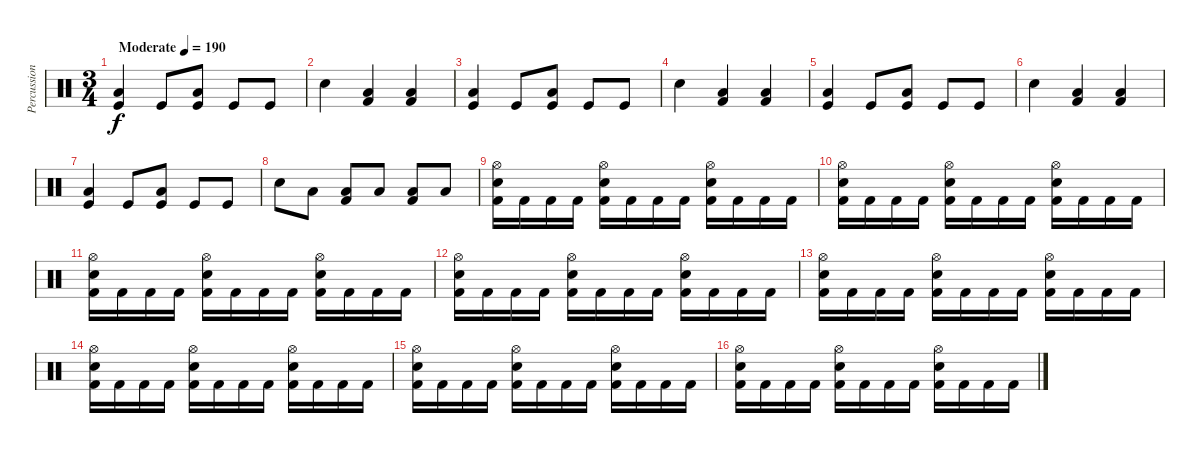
\track ("Percussion" "Percussion") {instrument percussion}
\staff {score}
\articulation defaults
\ts (3 4)
\tempo (190 "Moderate")
\clef neutral
\ks c
("Kick (hit)" "Low Tom (hit)").4{dy f} "Kick (hit)".8 ("Kick (hit)" "Low Tom (hit)").8 "Kick (hit)".8 "Kick (hit)".8 |
"Snare (hit) 2".4 ("Kick (hit) 2" "Low Floor Tom (hit)").4 ("Kick (hit) 2" "Low Floor Tom (hit)").4 |
("Kick (hit)" "Low Tom (hit)").4 "Kick (hit)".8 ("Kick (hit)" "Low Tom (hit)").8 "Kick (hit)".8 "Kick (hit)".8 |
"Snare (hit) 2".4 ("Kick (hit) 2" "Low Floor Tom (hit)").4 ("Kick (hit) 2" "Low Floor Tom (hit)").4 |
("Kick (hit)" "Low Tom (hit)").4 "Kick (hit)".8 ("Kick (hit)" "Low Tom (hit)").8 "Kick (hit)".8 "Kick (hit)".8 |
"Snare (hit) 2".4 ("Kick (hit) 2" "Low Floor Tom (hit)").4 ("Kick (hit) 2" "Low Floor Tom (hit)").4 |
("Kick (hit)" "Low Tom (hit)").4 "Kick (hit)".8 ("Kick (hit)" "Low Tom (hit)").8 "Kick (hit)".8 "Kick (hit)".8 |
"Snare (hit) 2".8 "Low Floor Tom (hit)".8 ("Kick (hit) 2" "Low Floor Tom (hit)").8 "Low Tom (hit)".8 ("Kick (hit) 2" "Low Floor Tom (hit)").8 "Low Tom (hit)".8 |
("Kick (hit) 2" "Snare (hit) 2" "Hi-Hat (open)").16 "Kick (hit) 2".16 "Kick (hit) 2".16 "Kick (hit) 2".16 ("Kick (hit) 2" "Snare (hit) 2" "Hi-Hat (open)").16 "Kick (hit) 2".16 "Kick (hit) 2".16 "Kick (hit) 2".16 ("Kick (hit) 2" "Snare (hit) 2" "Hi-Hat (open)").16 "Kick (hit) 2".16 "Kick (hit) 2".16 "Kick (hit) 2".16 |
("Kick (hit) 2" "Snare (hit) 2" "Hi-Hat (open)").16 "Kick (hit) 2".16 "Kick (hit) 2".16 "Kick (hit) 2".16 ("Kick (hit) 2" "Snare (hit) 2" "Hi-Hat (open)").16 "Kick (hit) 2".16 "Kick (hit) 2".16 "Kick (hit) 2".16 ("Kick (hit) 2" "Snare (hit) 2" "Hi-Hat (open)").16 "Kick (hit) 2".16 "Kick (hit) 2".16 "Kick (hit) 2".16 |
("Kick (hit) 2" "Snare (hit) 2" "Hi-Hat (open)").16 "Kick (hit) 2".16 "Kick (hit) 2".16 "Kick (hit) 2".16 ("Kick (hit) 2" "Snare (hit) 2" "Hi-Hat (open)").16 "Kick (hit) 2".16 "Kick (hit) 2".16 "Kick (hit) 2".16 ("Kick (hit) 2" "Snare (hit) 2" "Hi-Hat (open)").16 "Kick (hit) 2".16 "Kick (hit) 2".16 "Kick (hit) 2".16 |
("Kick (hit) 2" "Snare (hit) 2" "Hi-Hat (open)").16 "Kick (hit) 2".16 "Kick (hit) 2".16 "Kick (hit) 2".16 ("Kick (hit) 2" "Snare (hit) 2" "Hi-Hat (open)").16 "Kick (hit) 2".16 "Kick (hit) 2".16 "Kick (hit) 2".16 ("Kick (hit) 2" "Snare (hit) 2" "Hi-Hat (open)").16 "Kick (hit) 2".16 "Kick (hit) 2".16 "Kick (hit) 2".16 |
("Kick (hit) 2" "Snare (hit) 2" "Hi-Hat (open)").16 "Kick (hit) 2".16 "Kick (hit) 2".16 "Kick (hit) 2".16 ("Kick (hit) 2" "Snare (hit) 2" "Hi-Hat (open)").16 "Kick (hit) 2".16 "Kick (hit) 2".16 "Kick (hit) 2".16 ("Kick (hit) 2" "Snare (hit) 2" "Hi-Hat (open)").16 "Kick (hit) 2".16 "Kick (hit) 2".16 "Kick (hit) 2".16 |
("Kick (hit) 2" "Snare (hit) 2" "Hi-Hat (open)").16 "Kick (hit) 2".16 "Kick (hit) 2".16 "Kick (hit) 2".16 ("Kick (hit) 2" "Snare (hit) 2" "Hi-Hat (open)").16 "Kick (hit) 2".16 "Kick (hit) 2".16 "Kick (hit) 2".16 ("Kick (hit) 2" "Snare (hit) 2" "Hi-Hat (open)").16 "Kick (hit) 2".16 "Kick (hit) 2".16 "Kick (hit) 2".16 |
("Kick (hit) 2" "Snare (hit) 2" "Hi-Hat (open)").16 "Kick (hit) 2".16 "Kick (hit) 2".16 "Kick (hit) 2".16 ("Kick (hit) 2" "Snare (hit) 2" "Hi-Hat (open)").16 "Kick (hit) 2".16 "Kick (hit) 2".16 "Kick (hit) 2".16 ("Kick (hit) 2" "Snare (hit) 2" "Hi-Hat (open)").16 "Kick (hit) 2".16 "Kick (hit) 2".16 "Kick (hit) 2".16 |
("Kick (hit) 2" "Snare (hit) 2" "Hi-Hat (open)").16 "Kick (hit) 2".16 "Kick (hit) 2".16 "Kick (hit) 2".16 ("Kick (hit) 2" "Snare (hit) 2" "Hi-Hat (open)").16 "Kick (hit) 2".16 "Kick (hit) 2".16 "Kick (hit) 2".16 ("Kick (hit) 2" "Snare (hit) 2" "Hi-Hat (open)").16 "Kick (hit) 2".16 "Kick (hit) 2".16 "Kick (hit) 2".16
